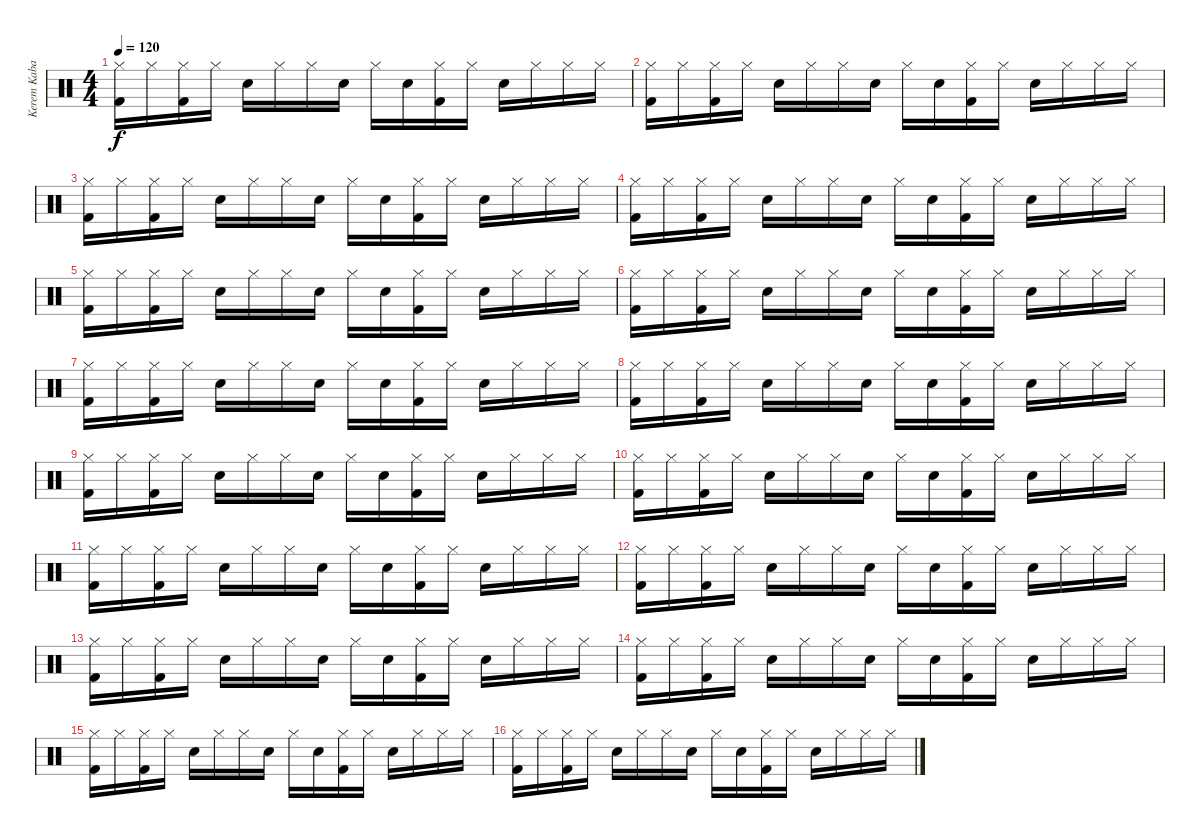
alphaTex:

\track ("Kerem Kabadayı" "Kerem Kaba") {instrument percussion}
\staff {score}
\articulation defaults
\ts (4 4)
\tempo 120
\clef neutral
\ks c
("Hi-Hat (closed)" "Kick (hit) 2").16{dy f} "Hi-Hat (closed)".16 ("Hi-Hat (closed)" "Kick (hit) 2").16 "Hi-Hat (closed)".16 "Electric Snare (hit)".16 "Hi-Hat (closed)".16 "Hi-Hat (closed)".16 "Electric Snare (hit)".16 "Hi-Hat (closed)".16 "Electric Snare (hit)".16 ("Hi-Hat (closed)" "Kick (hit) 2").16 "Hi-Hat (closed)".16 "Electric Snare (hit)".16 "Hi-Hat (closed)".16 "Hi-Hat (closed)".16 "Hi-Hat (closed)".16 |
("Hi-Hat (closed)" "Kick (hit) 2").16 "Hi-Hat (closed)".16 ("Hi-Hat (closed)" "Kick (hit) 2").16 "Hi-Hat (closed)".16 "Electric Snare (hit)".16 "Hi-Hat (closed)".16 "Hi-Hat (closed)".16 "Electric Snare (hit)".16 "Hi-Hat (closed)".16 "Electric Snare (hit)".16 ("Hi-Hat (closed)" "Kick (hit) 2").16 "Hi-Hat (closed)".16 "Electric Snare (hit)".16 "Hi-Hat (closed)".16 "Hi-Hat (closed)".16 "Hi-Hat (closed)".16 |
("Hi-Hat (closed)" "Kick (hit) 2").16 "Hi-Hat (closed)".16 ("Hi-Hat (closed)" "Kick (hit) 2").16 "Hi-Hat (closed)".16 "Electric Snare (hit)".16 "Hi-Hat (closed)".16 "Hi-Hat (closed)".16 "Electric Snare (hit)".16 "Hi-Hat (closed)".16 "Electric Snare (hit)".16 ("Hi-Hat (closed)" "Kick (hit) 2").16 "Hi-Hat (closed)".16 "Electric Snare (hit)".16 "Hi-Hat (closed)".16 "Hi-Hat (closed)".16 "Hi-Hat (closed)".16 |
("Hi-Hat (closed)" "Kick (hit) 2").16 "Hi-Hat (closed)".16 ("Hi-Hat (closed)" "Kick (hit) 2").16 "Hi-Hat (closed)".16 "Electric Snare (hit)".16 "Hi-Hat (closed)".16 "Hi-Hat (closed)".16 "Electric Snare (hit)".16 "Hi-Hat (closed)".16 "Electric Snare (hit)".16 ("Hi-Hat (closed)" "Kick (hit) 2").16 "Hi-Hat (closed)".16 "Electric Snare (hit)".16 "Hi-Hat (closed)".16 "Hi-Hat (closed)".16 "Hi-Hat (closed)".16 |
("Hi-Hat (closed)" "Kick (hit) 2").16 "Hi-Hat (closed)".16 ("Hi-Hat (closed)" "Kick (hit) 2").16 "Hi-Hat (closed)".16 "Electric Snare (hit)".16 "Hi-Hat (closed)".16 "Hi-Hat (closed)".16 "Electric Snare (hit)".16 "Hi-Hat (closed)".16 "Electric Snare (hit)".16 ("Hi-Hat (closed)" "Kick (hit) 2").16 "Hi-Hat (closed)".16 "Electric Snare (hit)".16 "Hi-Hat (closed)".16 "Hi-Hat (closed)".16 "Hi-Hat (closed)".16 |
("Hi-Hat (closed)" "Kick (hit) 2").16 "Hi-Hat (closed)".16 ("Hi-Hat (closed)" "Kick (hit) 2").16 "Hi-Hat (closed)".16 "Electric Snare (hit)".16 "Hi-Hat (closed)".16 "Hi-Hat (closed)".16 "Electric Snare (hit)".16 "Hi-Hat (closed)".16 "Electric Snare (hit)".16 ("Hi-Hat (closed)" "Kick (hit) 2").16 "Hi-Hat (closed)".16 "Electric Snare (hit)".16 "Hi-Hat (closed)".16 "Hi-Hat (closed)".16 "Hi-Hat (closed)".16 |
("Hi-Hat (closed)" "Kick (hit) 2").16 "Hi-Hat (closed)".16 ("Hi-Hat (closed)" "Kick (hit) 2").16 "Hi-Hat (closed)".16 "Electric Snare (hit)".16 "Hi-Hat (closed)".16 "Hi-Hat (closed)".16 "Electric Snare (hit)".16 "Hi-Hat (closed)".16 "Electric Snare (hit)".16 ("Hi-Hat (closed)" "Kick (hit) 2").16 "Hi-Hat (closed)".16 "Electric Snare (hit)".16 "Hi-Hat (closed)".16 "Hi-Hat (closed)".16 "Hi-Hat (closed)".16 |
("Hi-Hat (closed)" "Kick (hit) 2").16 "Hi-Hat (closed)".16 ("Hi-Hat (closed)" "Kick (hit) 2").16 "Hi-Hat (closed)".16 "Electric Snare (hit)".16 "Hi-Hat (closed)".16 "Hi-Hat (closed)".16 "Electric Snare (hit)".16 "Hi-Hat (closed)".16 "Electric Snare (hit)".16 ("Hi-Hat (closed)" "Kick (hit) 2").16 "Hi-Hat (closed)".16 "Electric Snare (hit)".16 "Hi-Hat (closed)".16 "Hi-Hat (closed)".16 "Hi-Hat (closed)".16 |
("Hi-Hat (closed)" "Kick (hit) 2").16 "Hi-Hat (closed)".16 ("Hi-Hat (closed)" "Kick (hit) 2").16 "Hi-Hat (closed)".16 "Electric Snare (hit)".16 "Hi-Hat (closed)".16 "Hi-Hat (closed)".16 "Electric Snare (hit)".16 "Hi-Hat (closed)".16 "Electric Snare (hit)".16 ("Hi-Hat (closed)" "Kick (hit) 2").16 "Hi-Hat (closed)".16 "Electric Snare (hit)".16 "Hi-Hat (closed)".16 "Hi-Hat (closed)".16 "Hi-Hat (closed)".16 |
("Hi-Hat (closed)" "Kick (hit) 2").16 "Hi-Hat (closed)".16 ("Hi-Hat (closed)" "Kick (hit) 2").16 "Hi-Hat (closed)".16 "Electric Snare (hit)".16 "Hi-Hat (closed)".16 "Hi-Hat (closed)".16 "Electric Snare (hit)".16 "Hi-Hat (closed)".16 "Electric Snare (hit)".16 ("Hi-Hat (closed)" "Kick (hit) 2").16 "Hi-Hat (closed)".16 "Electric Snare (hit)".16 "Hi-Hat (closed)".16 "Hi-Hat (closed)".16 "Hi-Hat (closed)".16 |
("Hi-Hat (closed)" "Kick (hit) 2").16 "Hi-Hat (closed)".16 ("Hi-Hat (closed)" "Kick (hit) 2").16 "Hi-Hat (closed)".16 "Electric Snare (hit)".16 "Hi-Hat (closed)".16 "Hi-Hat (closed)".16 "Electric Snare (hit)".16 "Hi-Hat (closed)".16 "Electric Snare (hit)".16 ("Hi-Hat (closed)" "Kick (hit) 2").16 "Hi-Hat (closed)".16 "Electric Snare (hit)".16 "Hi-Hat (closed)".16 "Hi-Hat (closed)".16 "Hi-Hat (closed)".16 |
("Hi-Hat (closed)" "Kick (hit) 2").16 "Hi-Hat (closed)".16 ("Hi-Hat (closed)" "Kick (hit) 2").16 "Hi-Hat (closed)".16 "Electric Snare (hit)".16 "Hi-Hat (closed)".16 "Hi-Hat (closed)".16 "Electric Snare (hit)".16 "Hi-Hat (closed)".16 "Electric Snare (hit)".16 ("Hi-Hat (closed)" "Kick (hit) 2").16 "Hi-Hat (closed)".16 "Electric Snare (hit)".16 "Hi-Hat (closed)".16 "Hi-Hat (closed)".16 "Hi-Hat (closed)".16 |
("Hi-Hat (closed)" "Kick (hit) 2").16 "Hi-Hat (closed)".16 ("Hi-Hat (closed)" "Kick (hit) 2").16 "Hi-Hat (closed)".16 "Electric Snare (hit)".16 "Hi-Hat (closed)".16 "Hi-Hat (closed)".16 "Electric Snare (hit)".16 "Hi-Hat (closed)".16 "Electric Snare (hit)".16 ("Hi-Hat (closed)" "Kick (hit) 2").16 "Hi-Hat (closed)".16 "Electric Snare (hit)".16 "Hi-Hat (closed)".16 "Hi-Hat (closed)".16 "Hi-Hat (closed)".16 |
("Hi-Hat (closed)" "Kick (hit) 2").16 "Hi-Hat (closed)".16 ("Hi-Hat (closed)" "Kick (hit) 2").16 "Hi-Hat (closed)".16 "Electric Snare (hit)".16 "Hi-Hat (closed)".16 "Hi-Hat (closed)".16 "Electric Snare (hit)".16 "Hi-Hat (closed)".16 "Electric Snare (hit)".16 ("Hi-Hat (closed)" "Kick (hit) 2").16 "Hi-Hat (closed)".16 "Electric Snare (hit)".16 "Hi-Hat (closed)".16 "Hi-Hat (closed)".16 "Hi-Hat (closed)".16 |
("Hi-Hat (closed)" "Kick (hit) 2").16 "Hi-Hat (closed)".16 ("Hi-Hat (closed)" "Kick (hit) 2").16 "Hi-Hat (closed)".16 "Electric Snare (hit)".16 "Hi-Hat (closed)".16 "Hi-Hat (closed)".16 "Electric Snare (hit)".16 "Hi-Hat (closed)".16 "Electric Snare (hit)".16 ("Hi-Hat (closed)" "Kick (hit) 2").16 "Hi-Hat (closed)".16 "Electric Snare (hit)".16 "Hi-Hat (closed)".16 "Hi-Hat (closed)".16 "Hi-Hat (closed)".16 |
("Hi-Hat (closed)" "Kick (hit) 2").16 "Hi-Hat (closed)".16 ("Hi-Hat (closed)" "Kick (hit) 2").16 "Hi-Hat (closed)".16 "Electric Snare (hit)".16 "Hi-Hat (closed)".16 "Hi-Hat (closed)".16 "Electric Snare (hit)".16 "Hi-Hat (closed)".16 "Electric Snare (hit)".16 ("Hi-Hat (closed)" "Kick (hit) 2").16 "Hi-Hat (closed)".16 "Electric Snare (hit)".16 "Hi-Hat (closed)".16 "Hi-Hat (closed)".16 "Hi-Hat (closed)".16
